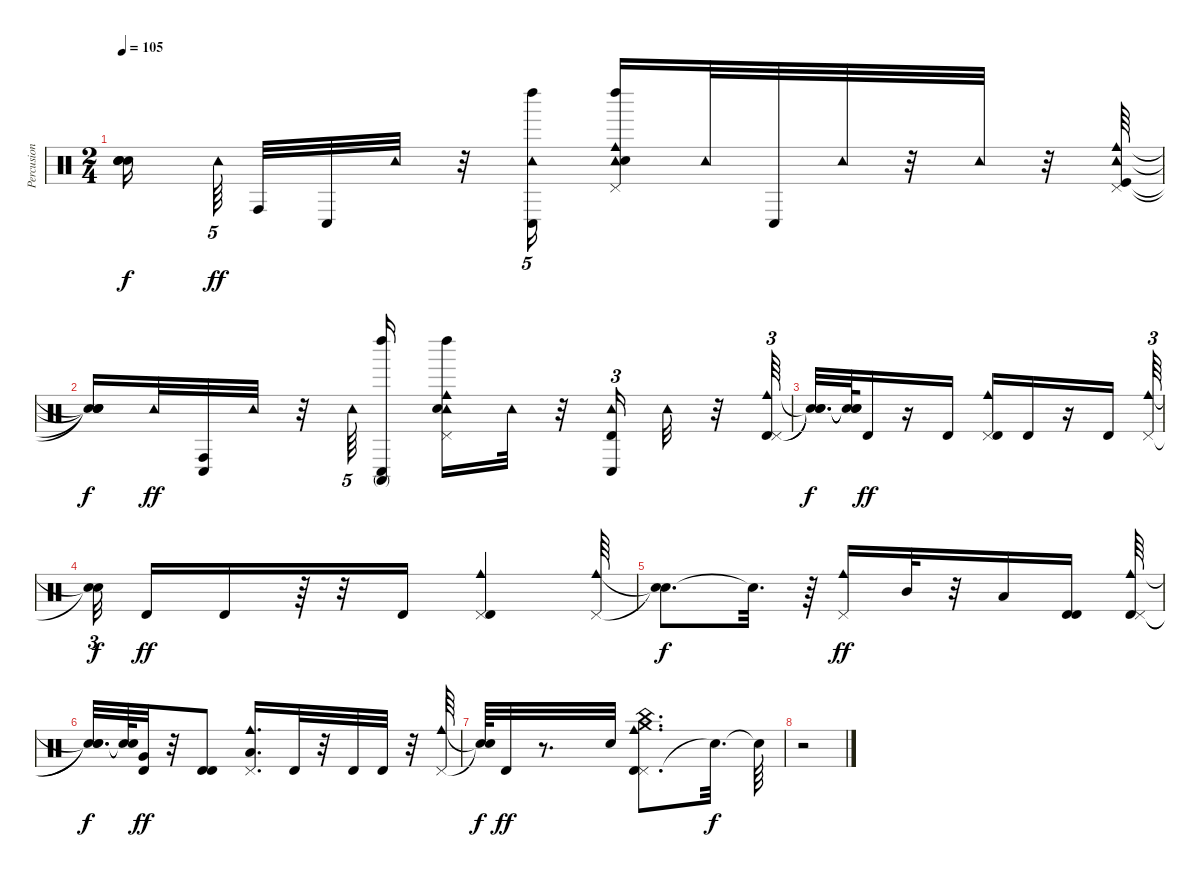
\track ("Percusion" "Percusion") {instrument percussion}
\staff {score}
\articulation defaults
\ts (2 4)
\tempo 105
\clef neutral
\ks c
("Snare (hit)"{t} "Snare (hit)"{t} "Snare (hit)"{t} "Snare (hit)"{t}).16{dy f beam splitsecondary} "Tambourine (hit)".64{tu (5 4) dy ff beam splitsecondary} "Conga high (hit)".32 "Conga low (hit)".32 "Tambourine (hit)".32 r.32 ("Tambourine (hit)" "Conga low (hit)" "Left Maraca (hit)").16{tu (5 4)} ("Pedal Hi-Hat (hit)" "Tambourine (hit)" "Cowbell medium (hit)" "Electric Snare (hit)" "Left Maraca (hit)").16 "Tambourine (hit)".32 "Conga low (hit)".32 "Tambourine (hit)".32 r.32 "Tambourine (hit)".32 r.32 ("Pedal Hi-Hat (hit)" "Tambourine (hit)" "Cowbell medium (hit)" "Kick (hit)").64 |
("Snare (hit)"{t} "Snare (hit)"{t} "Snare (hit)"{t} "Snare (hit)"{t}).16{dy f} "Tambourine (hit)".32{dy ff} ("Conga high (hit)" "Conga low (hit)").32 "Tambourine (hit)".32 r.32 "Tambourine (hit)".64{tu (5 4)} ("Left Maraca (hit)" "Conga low (hit)" "Conga high (mute)").16 ("Tambourine (hit)" "Electric Snare (hit)" "Cowbell medium (hit)" "Pedal Hi-Hat (hit)" "Left Maraca (hit)").16 "Tambourine (hit)".32 r.32 ("Tambourine (hit)" "Conga low (hit)" "Timbale high (hit)").16{tu (3 2)} "Tambourine (hit)".32 r.32 ("Timbale high (hit)" "Cowbell medium (hit)" "Pedal Hi-Hat (hit)").64{tu (3 2)} |
("Snare (hit)"{t} "Snare (hit)"{t} "Snare (hit)"{t}).32{d dy f} ("Snare (hit)"{t} "Snare (hit)"{t} "Snare (hit)"{t}).64 "Timbale high (hit)".16{dy ff} r.16 "Timbale high (hit)".16 ("Pedal Hi-Hat (hit)" "Cowbell medium (hit)" "Timbale high (hit)").16 "Timbale high (hit)".16 r.16 "Timbale high (hit)".16 ("Cowbell medium (hit)" "Pedal Hi-Hat (hit)").64{tu (3 2)} |
("Snare (hit)"{t} "Snare (hit)"{t}).32{tu (3 2) dy f beam splitsecondary} "Timbale high (hit)".16{dy ff} "Timbale high (hit)".16 r.64 r.32 "Timbale high (hit)".16 ("Cowbell medium (hit)" "Pedal Hi-Hat (hit)" "Timbale high (hit)").4 ("Pedal Hi-Hat (hit)" "Cowbell medium (hit)").64 |
("Snare (hit)"{t} "Snare (hit)"{t}).8{d dy f} "Snare (hit)"{t}.32{d} r.64 ("Pedal Hi-Hat (hit)" "Cowbell medium (hit)").16{dy ff} "Mid Tom (hit)".32 r.32 "Low Tom (hit)".16 ("Timbale high (hit)" "Timbale high (hit)").16 ("Cowbell medium (hit)" "Timbale high (hit)" "Pedal Hi-Hat (hit)").64 |
("Snare (hit)"{t} "Snare (hit)"{t} "Snare (hit)"{t}).32{d dy f} ("Snare (hit)"{t} "Snare (hit)"{t}).64 ("Timbale high (hit)" "Very Low Tom (hit)").32{dy ff} r.32 ("Timbale high (hit)" "Timbale high (hit)").8 ("Low Floor Tom (hit)" "Cowbell medium (hit)" "Pedal Hi-Hat (hit)").16{d} "Timbale high (hit)".32 r.32 "Timbale high (hit)".32 "Timbale high (hit)".32 r.32 ("Pedal Hi-Hat (hit)" "Cowbell medium (hit)").64 |
("Snare (hit)"{t} "Snare (hit)"{t}).64{dy f} "Timbale high (hit)".32{dy ff} r.8{d} "Electric Snare (hit)".32 ("Pedal Hi-Hat (hit)" "Cowbell medium (hit)" "Crash medium (hit)" "Timbale high (hit)" "China (hit)").8{d} "Snare (hit)"{t}.32{d dy f} "Snare (hit)"{t}.64 |
r.2
